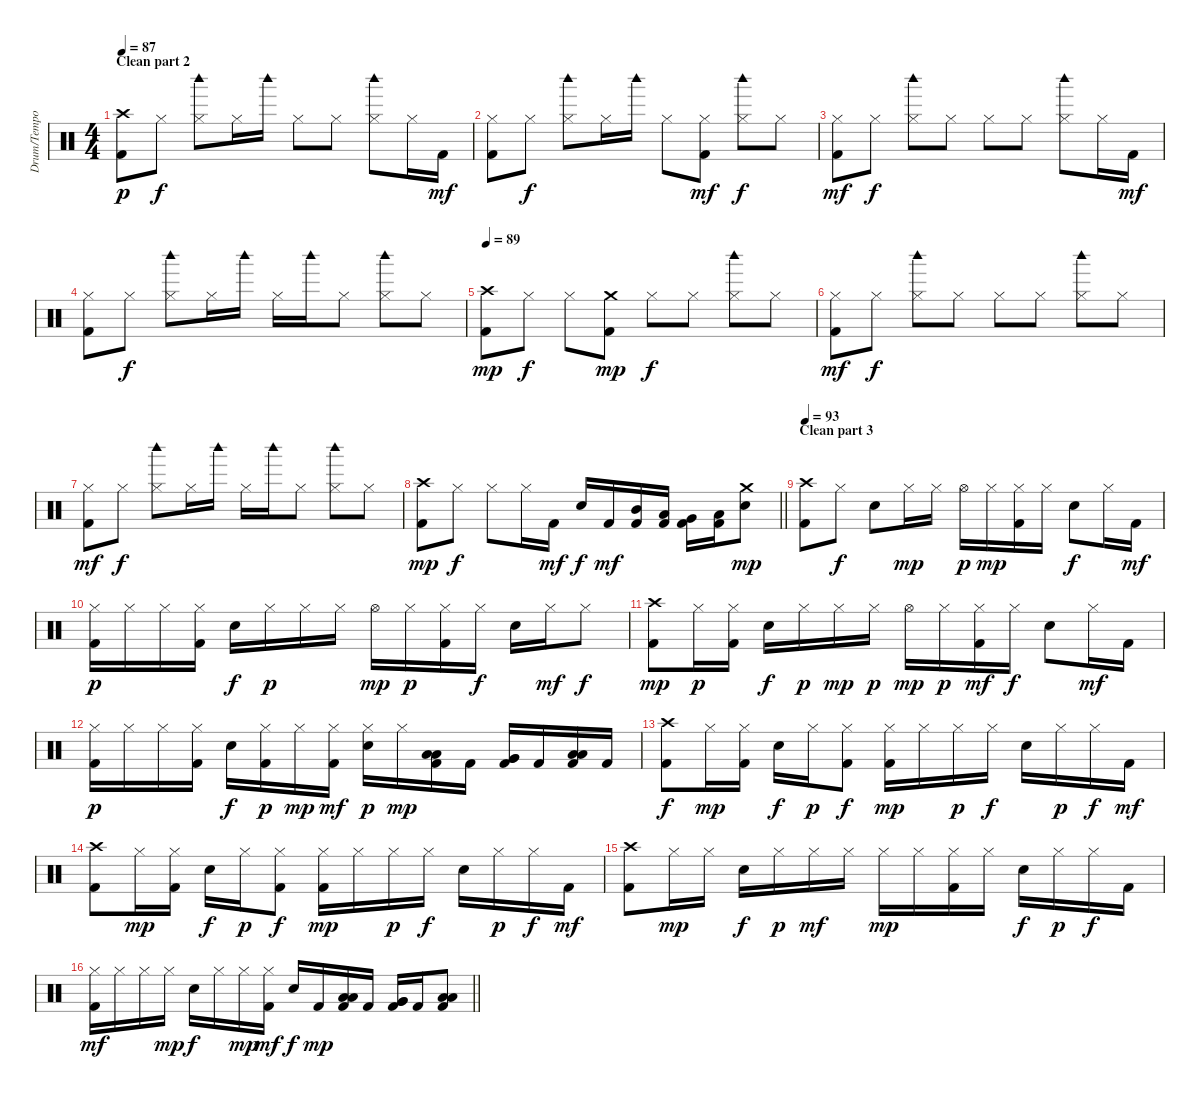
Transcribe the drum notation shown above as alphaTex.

\track ("Drum/Tempo" "Drum/Tempo") {instrument percussion}
\staff {score}
\articulation defaults
\ts (4 4)
\section ("" "Clean part 2")
\tempo 87
\clef neutral
\ks c
("Kick (hit) 2" "Crash high (hit)").8{dy p} "Hi-Hat (closed)".8{dy f} ("Woodblock high (hit)" "Hi-Hat (closed)").8 "Hi-Hat (closed)".16 "Woodblock high (hit)".16 "Hi-Hat (closed)".8 "Hi-Hat (closed)".8 ("Woodblock high (hit)" "Hi-Hat (closed)").8 "Hi-Hat (closed)".16 "Kick (hit) 2".16{dy mf} |
("Kick (hit) 2" "Hi-Hat (closed)").8 "Hi-Hat (closed)".8{dy f} ("Woodblock high (hit)" "Hi-Hat (closed)").8 "Hi-Hat (closed)".16 "Woodblock high (hit)".16 "Hi-Hat (closed)".8 ("Kick (hit) 2" "Hi-Hat (closed)").8{dy mf} ("Woodblock high (hit)" "Hi-Hat (closed)").8{dy f} "Hi-Hat (closed)".8 |
("Kick (hit) 2" "Hi-Hat (closed)").8{dy mf} "Hi-Hat (closed)".8{dy f} ("Woodblock high (hit)" "Hi-Hat (closed)").8 "Hi-Hat (closed)".8 "Hi-Hat (closed)".8 "Hi-Hat (closed)".8 ("Woodblock high (hit)" "Hi-Hat (closed)").8 "Hi-Hat (closed)".16 "Kick (hit) 2".16{dy mf} |
("Kick (hit) 2" "Hi-Hat (closed)").8 "Hi-Hat (closed)".8{dy f} ("Woodblock high (hit)" "Hi-Hat (closed)").8 "Hi-Hat (closed)".16 "Woodblock high (hit)".16 "Hi-Hat (closed)".16 "Woodblock high (hit)".16 "Hi-Hat (closed)".8 ("Woodblock high (hit)" "Hi-Hat (closed)").8 "Hi-Hat (closed)".8 |
\tempo 89
("Kick (hit) 2" "Crash high (hit)").8{dy mp} "Hi-Hat (closed)".8{dy f} "Hi-Hat (closed)".8 ("Kick (hit) 2" "Crash medium (hit)").8{dy mp} "Hi-Hat (closed)".8{dy f} "Hi-Hat (closed)".8 ("Woodblock high (hit)" "Hi-Hat (closed)").8 "Hi-Hat (closed)".8 |
("Kick (hit) 2" "Hi-Hat (closed)").8{dy mf} "Hi-Hat (closed)".8{dy f} ("Woodblock high (hit)" "Hi-Hat (closed)").8 "Hi-Hat (closed)".8 "Hi-Hat (closed)".8 "Hi-Hat (closed)".8 ("Woodblock high (hit)" "Hi-Hat (closed)").8 "Hi-Hat (closed)".8 |
("Kick (hit) 2" "Hi-Hat (closed)").8{dy mf} "Hi-Hat (closed)".8{dy f} ("Woodblock high (hit)" "Hi-Hat (closed)").8 "Hi-Hat (closed)".16 "Woodblock high (hit)".16 "Hi-Hat (closed)".16 "Woodblock high (hit)".16 "Hi-Hat (closed)".8 ("Woodblock high (hit)" "Hi-Hat (closed)").8 "Hi-Hat (closed)".8 |
\barLineRight lightlight
("Kick (hit) 2" "Crash high (hit)").8{dy mp} "Hi-Hat (closed)".8{dy f} "Hi-Hat (closed)".8 "Hi-Hat (closed)".16 "Kick (hit) 2".16{dy mf} "Electric Snare (hit)".16{dy f} "Kick (hit) 2".16{dy mf} ("Kick (hit) 2" "Mid Tom (hit)").16 ("Kick (hit) 2" "Low Tom (hit)").16 ("Kick (hit) 2" "Very Low Tom (hit)").16 ("Kick (hit) 2" "Low Floor Tom (hit)").16 ("Electric Snare (hit)" "Crash medium (hit)").8{dy mp} |
\section ("" "Clean part 3")
\tempo 93
("Kick (hit) 2" "Crash high (hit)").8 "Hi-Hat (closed)".8{dy f} "Electric Snare (hit)".8 "Hi-Hat (closed)".16{dy mp} "Hi-Hat (closed)".16 "Hi-Hat (open)".16{dy p} "Hi-Hat (closed)".16{dy mp} ("Kick (hit) 2" "Hi-Hat (closed)").16 "Hi-Hat (closed)".16 "Electric Snare (hit)".8{dy f} "Hi-Hat (closed)".16 "Kick (hit) 2".16{dy mf} |
("Kick (hit) 2" "Hi-Hat (closed)").16{dy p} "Hi-Hat (closed)".16 "Hi-Hat (closed)".16 ("Kick (hit) 2" "Hi-Hat (closed)").16 "Electric Snare (hit)".16{dy f} "Hi-Hat (closed)".16{dy p} "Hi-Hat (closed)".16 "Hi-Hat (closed)".16 "Hi-Hat (open)".16{dy mp} "Hi-Hat (closed)".16{dy p} ("Kick (hit) 2" "Hi-Hat (closed)").16 "Hi-Hat (closed)".16{dy f} "Electric Snare (hit)".16 "Hi-Hat (closed)".16{dy mf} "Hi-Hat (closed)".8{dy f} |
("Kick (hit) 2" "Crash high (hit)").8{dy mp} "Hi-Hat (closed)".16{dy p} ("Kick (hit) 2" "Hi-Hat (closed)").16 "Electric Snare (hit)".16{dy f} "Hi-Hat (closed)".16{dy p} "Hi-Hat (closed)".16{dy mp} "Hi-Hat (closed)".16{dy p} "Hi-Hat (open)".16{dy mp} "Hi-Hat (closed)".16{dy p} ("Kick (hit) 2" "Hi-Hat (closed)").16{dy mf} "Hi-Hat (closed)".16{dy f} "Electric Snare (hit)".8 "Hi-Hat (closed)".16{dy mf} "Kick (hit) 2".16 |
("Kick (hit) 2" "Hi-Hat (closed)").16{dy p} "Hi-Hat (closed)".16 "Hi-Hat (closed)".16 ("Kick (hit) 2" "Hi-Hat (closed)").16 "Electric Snare (hit)".16{dy f} ("Kick (hit) 2" "Hi-Hat (closed)").16{dy p} "Hi-Hat (closed)".16{dy mp} ("Kick (hit) 2" "Hi-Hat (closed)").16{dy mf} ("Electric Snare (hit)" "Hi-Hat (closed)").16{dy p} "Hi-Hat (closed)".16{dy mp} ("Kick (hit) 2" "Low Tom (hit)" "Low Tom (hit)").16 "Kick (hit) 2".16 ("Kick (hit) 2" "Very Low Tom (hit)" "Very Low Tom (hit)").16 "Kick (hit) 2".16 ("Kick (hit) 2" "Low Floor Tom (hit)" "Low Floor Tom (hit)").16 "Kick (hit) 2".16 |
("Kick (hit) 2" "Crash high (hit)").8{dy f} "Hi-Hat (closed)".16{dy mp} ("Kick (hit) 2" "Hi-Hat (closed)").16 "Electric Snare (hit)".16{dy f} "Hi-Hat (closed)".16{dy p} ("Kick (hit) 2" "Hi-Hat (closed)").8{dy f} ("Kick (hit) 2" "Hi-Hat (closed)").16{dy mp} "Hi-Hat (closed)".16 "Hi-Hat (closed)".16{dy p} "Hi-Hat (closed)".16{dy f} "Electric Snare (hit)".16 "Hi-Hat (closed)".16{dy p} "Hi-Hat (closed)".16{dy f} "Kick (hit) 2".16{dy mf} |
("Kick (hit) 2" "Crash high (hit)").8 "Hi-Hat (closed)".16{dy mp} ("Kick (hit) 2" "Hi-Hat (closed)").16 "Electric Snare (hit)".16{dy f} "Hi-Hat (closed)".16{dy p} ("Kick (hit) 2" "Hi-Hat (closed)").8{dy f} ("Kick (hit) 2" "Hi-Hat (closed)").16{dy mp} "Hi-Hat (closed)".16 "Hi-Hat (closed)".16{dy p} "Hi-Hat (closed)".16{dy f} "Electric Snare (hit)".16 "Hi-Hat (closed)".16{dy p} "Hi-Hat (closed)".16{dy f} "Kick (hit) 2".16{dy mf} |
("Kick (hit) 2" "Crash high (hit)").8 "Hi-Hat (closed)".16{dy mp} "Hi-Hat (closed)".16 "Electric Snare (hit)".16{dy f} "Hi-Hat (closed)".16{dy p} "Hi-Hat (closed)".16{dy mf} "Hi-Hat (closed)".16 "Hi-Hat (closed)".16{dy mp} "Hi-Hat (closed)".16 ("Kick (hit) 2" "Hi-Hat (closed)").16 "Hi-Hat (closed)".16 "Electric Snare (hit)".16{dy f} "Hi-Hat (closed)".16{dy p} "Hi-Hat (closed)".16{dy f} "Kick (hit) 2".16 |
\barLineRight lightlight
("Kick (hit) 2" "Hi-Hat (closed)").16{dy mf} "Hi-Hat (closed)".16 "Hi-Hat (closed)".16 "Hi-Hat (closed)".16{dy mp} "Electric Snare (hit)".16{dy f} "Hi-Hat (closed)".16 "Hi-Hat (closed)".16{dy mp} ("Kick (hit) 2" "Hi-Hat (closed)").16{dy mf} "Electric Snare (hit)".16{dy f} "Kick (hit) 2".16{dy mp} ("Kick (hit) 2" "Low Tom (hit)" "Low Tom (hit)").16 "Kick (hit) 2".16 ("Kick (hit) 2" "Very Low Tom (hit)" "Very Low Tom (hit)").16 "Kick (hit) 2".16 ("Kick (hit) 2" "Low Floor Tom (hit)" "Low Floor Tom (hit)").8
